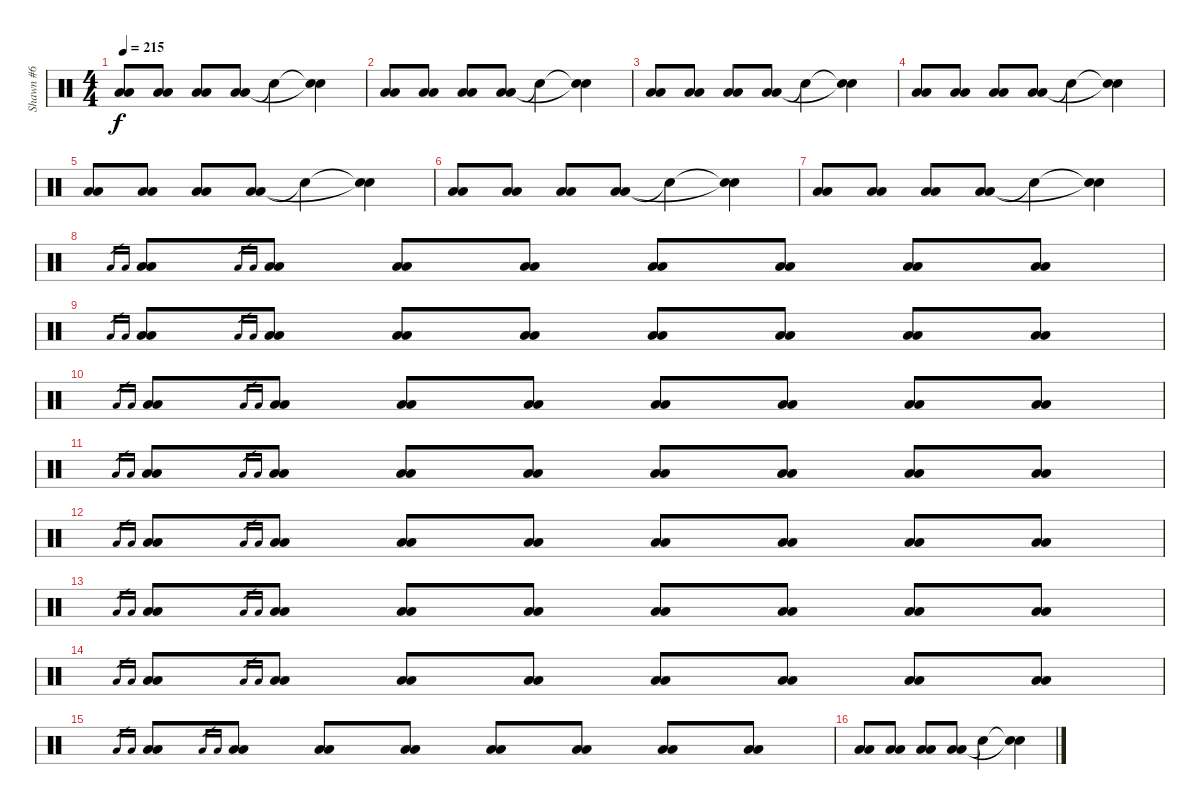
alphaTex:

\track ("Shawn #6" "Shawn #6") {instrument percussion}
\staff {score}
\articulation defaults
\ts (4 4)
\tempo 215
\clef neutral
\ks c
("Low Floor Tom (hit)" "Low Floor Tom (hit)").8{dy f} ("Low Floor Tom (hit)" "Low Floor Tom (hit)").8 ("Low Floor Tom (hit)" "Low Floor Tom (hit)").8 ("Low Floor Tom (hit)" "Low Floor Tom (hit)").8 "Snare (hit)"{t}.4 ("Snare (hit)"{t} "Snare (hit)"{t}).4 |
("Low Floor Tom (hit)" "Low Floor Tom (hit)").8 ("Low Floor Tom (hit)" "Low Floor Tom (hit)").8 ("Low Floor Tom (hit)" "Low Floor Tom (hit)").8 ("Low Floor Tom (hit)" "Low Floor Tom (hit)").8 "Snare (hit)"{t}.4 ("Snare (hit)"{t} "Snare (hit)"{t}).4 |
("Low Floor Tom (hit)" "Low Floor Tom (hit)").8 ("Low Floor Tom (hit)" "Low Floor Tom (hit)").8 ("Low Floor Tom (hit)" "Low Floor Tom (hit)").8 ("Low Floor Tom (hit)" "Low Floor Tom (hit)").8 "Snare (hit)"{t}.4 ("Snare (hit)"{t} "Snare (hit)"{t}).4 |
("Low Floor Tom (hit)" "Low Floor Tom (hit)").8 ("Low Floor Tom (hit)" "Low Floor Tom (hit)").8 ("Low Floor Tom (hit)" "Low Floor Tom (hit)").8 ("Low Floor Tom (hit)" "Low Floor Tom (hit)").8 "Snare (hit)"{t}.4 ("Snare (hit)"{t} "Snare (hit)"{t}).4 |
("Low Floor Tom (hit)" "Low Floor Tom (hit)").8 ("Low Floor Tom (hit)" "Low Floor Tom (hit)").8 ("Low Floor Tom (hit)" "Low Floor Tom (hit)").8 ("Low Floor Tom (hit)" "Low Floor Tom (hit)").8 "Snare (hit)"{t}.4 ("Snare (hit)"{t} "Snare (hit)"{t}).4 |
("Low Floor Tom (hit)" "Low Floor Tom (hit)").8 ("Low Floor Tom (hit)" "Low Floor Tom (hit)").8 ("Low Floor Tom (hit)" "Low Floor Tom (hit)").8 ("Low Floor Tom (hit)" "Low Floor Tom (hit)").8 "Snare (hit)"{t}.4 ("Snare (hit)"{t} "Snare (hit)"{t}).4 |
("Low Floor Tom (hit)" "Low Floor Tom (hit)").8 ("Low Floor Tom (hit)" "Low Floor Tom (hit)").8 ("Low Floor Tom (hit)" "Low Floor Tom (hit)").8 ("Low Floor Tom (hit)" "Low Floor Tom (hit)").8 "Snare (hit)"{t}.4 ("Snare (hit)"{t} "Snare (hit)"{t}).4 |
"Low Floor Tom (hit)"{sl}.16{gr} "Low Floor Tom (hit)"{sl}.16{gr} ("Low Floor Tom (hit)" "Low Floor Tom (hit)").8 "Low Floor Tom (hit)"{sl}.16{gr} "Low Floor Tom (hit)"{sl}.16{gr} ("Low Floor Tom (hit)" "Low Floor Tom (hit)").8 ("Low Floor Tom (hit)" "Low Floor Tom (hit)").8 ("Low Floor Tom (hit)" "Low Floor Tom (hit)").8 ("Low Floor Tom (hit)" "Low Floor Tom (hit)").8 ("Low Floor Tom (hit)" "Low Floor Tom (hit)").8 ("Low Floor Tom (hit)" "Low Floor Tom (hit)").8 ("Low Floor Tom (hit)" "Low Floor Tom (hit)").8 |
"Low Floor Tom (hit)"{sl}.16{gr} "Low Floor Tom (hit)"{sl}.16{gr} ("Low Floor Tom (hit)" "Low Floor Tom (hit)").8 "Low Floor Tom (hit)"{sl}.16{gr} "Low Floor Tom (hit)"{sl}.16{gr} ("Low Floor Tom (hit)" "Low Floor Tom (hit)").8 ("Low Floor Tom (hit)" "Low Floor Tom (hit)").8 ("Low Floor Tom (hit)" "Low Floor Tom (hit)").8 ("Low Floor Tom (hit)" "Low Floor Tom (hit)").8 ("Low Floor Tom (hit)" "Low Floor Tom (hit)").8 ("Low Floor Tom (hit)" "Low Floor Tom (hit)").8 ("Low Floor Tom (hit)" "Low Floor Tom (hit)").8 |
"Low Floor Tom (hit)"{sl}.16{gr} "Low Floor Tom (hit)"{sl}.16{gr} ("Low Floor Tom (hit)" "Low Floor Tom (hit)").8 "Low Floor Tom (hit)"{sl}.16{gr} "Low Floor Tom (hit)"{sl}.16{gr} ("Low Floor Tom (hit)" "Low Floor Tom (hit)").8 ("Low Floor Tom (hit)" "Low Floor Tom (hit)").8 ("Low Floor Tom (hit)" "Low Floor Tom (hit)").8 ("Low Floor Tom (hit)" "Low Floor Tom (hit)").8 ("Low Floor Tom (hit)" "Low Floor Tom (hit)").8 ("Low Floor Tom (hit)" "Low Floor Tom (hit)").8 ("Low Floor Tom (hit)" "Low Floor Tom (hit)").8 |
"Low Floor Tom (hit)"{sl}.16{gr} "Low Floor Tom (hit)"{sl}.16{gr} ("Low Floor Tom (hit)" "Low Floor Tom (hit)").8 "Low Floor Tom (hit)"{sl}.16{gr} "Low Floor Tom (hit)"{sl}.16{gr} ("Low Floor Tom (hit)" "Low Floor Tom (hit)").8 ("Low Floor Tom (hit)" "Low Floor Tom (hit)").8 ("Low Floor Tom (hit)" "Low Floor Tom (hit)").8 ("Low Floor Tom (hit)" "Low Floor Tom (hit)").8 ("Low Floor Tom (hit)" "Low Floor Tom (hit)").8 ("Low Floor Tom (hit)" "Low Floor Tom (hit)").8 ("Low Floor Tom (hit)" "Low Floor Tom (hit)").8 |
"Low Floor Tom (hit)"{sl}.16{gr} "Low Floor Tom (hit)"{sl}.16{gr} ("Low Floor Tom (hit)" "Low Floor Tom (hit)").8 "Low Floor Tom (hit)"{sl}.16{gr} "Low Floor Tom (hit)"{sl}.16{gr} ("Low Floor Tom (hit)" "Low Floor Tom (hit)").8 ("Low Floor Tom (hit)" "Low Floor Tom (hit)").8 ("Low Floor Tom (hit)" "Low Floor Tom (hit)").8 ("Low Floor Tom (hit)" "Low Floor Tom (hit)").8 ("Low Floor Tom (hit)" "Low Floor Tom (hit)").8 ("Low Floor Tom (hit)" "Low Floor Tom (hit)").8 ("Low Floor Tom (hit)" "Low Floor Tom (hit)").8 |
"Low Floor Tom (hit)"{sl}.16{gr} "Low Floor Tom (hit)"{sl}.16{gr} ("Low Floor Tom (hit)" "Low Floor Tom (hit)").8 "Low Floor Tom (hit)"{sl}.16{gr} "Low Floor Tom (hit)"{sl}.16{gr} ("Low Floor Tom (hit)" "Low Floor Tom (hit)").8 ("Low Floor Tom (hit)" "Low Floor Tom (hit)").8 ("Low Floor Tom (hit)" "Low Floor Tom (hit)").8 ("Low Floor Tom (hit)" "Low Floor Tom (hit)").8 ("Low Floor Tom (hit)" "Low Floor Tom (hit)").8 ("Low Floor Tom (hit)" "Low Floor Tom (hit)").8 ("Low Floor Tom (hit)" "Low Floor Tom (hit)").8 |
"Low Floor Tom (hit)"{sl}.16{gr} "Low Floor Tom (hit)"{sl}.16{gr} ("Low Floor Tom (hit)" "Low Floor Tom (hit)").8 "Low Floor Tom (hit)"{sl}.16{gr} "Low Floor Tom (hit)"{sl}.16{gr} ("Low Floor Tom (hit)" "Low Floor Tom (hit)").8 ("Low Floor Tom (hit)" "Low Floor Tom (hit)").8 ("Low Floor Tom (hit)" "Low Floor Tom (hit)").8 ("Low Floor Tom (hit)" "Low Floor Tom (hit)").8 ("Low Floor Tom (hit)" "Low Floor Tom (hit)").8 ("Low Floor Tom (hit)" "Low Floor Tom (hit)").8 ("Low Floor Tom (hit)" "Low Floor Tom (hit)").8 |
"Low Floor Tom (hit)"{sl}.16{gr} "Low Floor Tom (hit)"{sl}.16{gr} ("Low Floor Tom (hit)" "Low Floor Tom (hit)").8 "Low Floor Tom (hit)"{sl}.16{gr} "Low Floor Tom (hit)"{sl}.16{gr} ("Low Floor Tom (hit)" "Low Floor Tom (hit)").8 ("Low Floor Tom (hit)" "Low Floor Tom (hit)").8 ("Low Floor Tom (hit)" "Low Floor Tom (hit)").8 ("Low Floor Tom (hit)" "Low Floor Tom (hit)").8 ("Low Floor Tom (hit)" "Low Floor Tom (hit)").8 ("Low Floor Tom (hit)" "Low Floor Tom (hit)").8 ("Low Floor Tom (hit)" "Low Floor Tom (hit)").8 |
("Low Floor Tom (hit)" "Low Floor Tom (hit)").8 ("Low Floor Tom (hit)" "Low Floor Tom (hit)").8 ("Low Floor Tom (hit)" "Low Floor Tom (hit)").8 ("Low Floor Tom (hit)" "Low Floor Tom (hit)").8 "Snare (hit)"{t}.4 ("Snare (hit)"{t} "Snare (hit)"{t}).4
